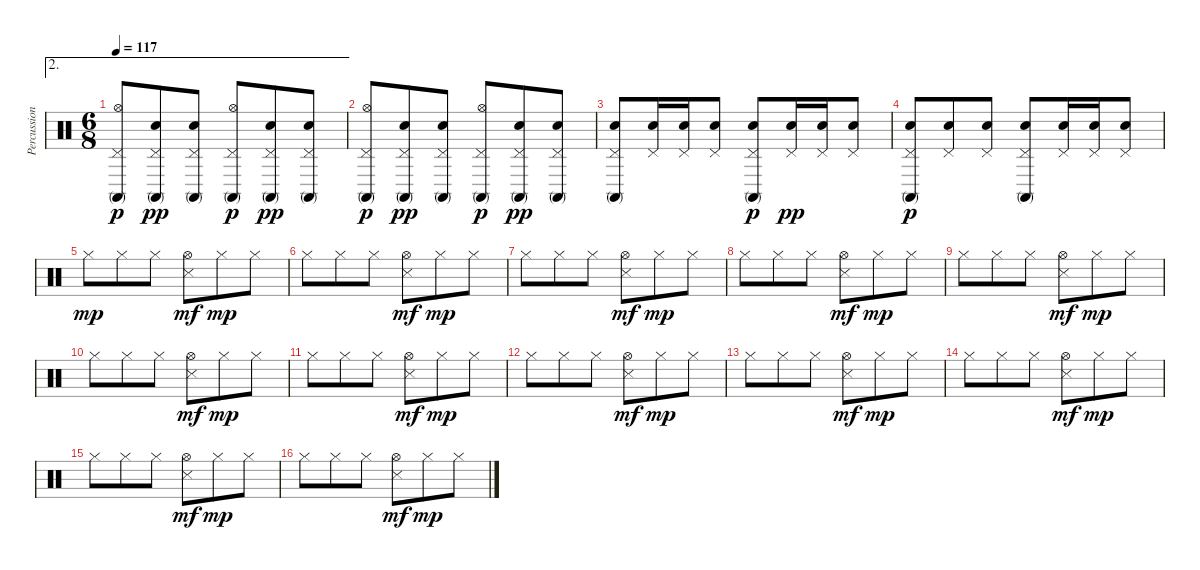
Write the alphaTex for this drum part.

\track ("Percussions" "Percussion") {instrument percussion}
\staff {score}
\articulation defaults
\ae 2
\ts (6 8)
\tempo 117
\clef neutral
\ks c
("Pedal Hi-Hat (hit)" "Hi-Hat (open)" "Conga high (mute)").8{dy p} ("Pedal Hi-Hat (hit)" "Snare (hit) 2" "Conga high (mute)").8{dy pp} ("Pedal Hi-Hat (hit)" "Snare (hit) 2" "Conga high (mute)").8 ("Pedal Hi-Hat (hit)" "Hi-Hat (open)" "Conga high (mute)").8{dy p} ("Pedal Hi-Hat (hit)" "Snare (hit) 2" "Conga high (mute)").8{dy pp} ("Pedal Hi-Hat (hit)" "Snare (hit) 2" "Conga high (mute)").8 |
("Pedal Hi-Hat (hit)" "Hi-Hat (open)" "Conga high (mute)").8{dy p} ("Pedal Hi-Hat (hit)" "Snare (hit) 2" "Conga high (mute)").8{dy pp} ("Pedal Hi-Hat (hit)" "Snare (hit) 2" "Conga high (mute)").8 ("Pedal Hi-Hat (hit)" "Hi-Hat (open)" "Conga high (mute)").8{dy p} ("Pedal Hi-Hat (hit)" "Snare (hit) 2" "Conga high (mute)").8{dy pp} ("Pedal Hi-Hat (hit)" "Snare (hit) 2" "Conga high (mute)").8 |
("Pedal Hi-Hat (hit)" "Snare (hit) 2" "Conga high (mute)").8 ("Pedal Hi-Hat (hit)" "Snare (hit) 2").16 ("Pedal Hi-Hat (hit)" "Snare (hit) 2").16 ("Pedal Hi-Hat (hit)" "Snare (hit) 2").8 ("Pedal Hi-Hat (hit)" "Snare (hit) 2" "Conga high (mute)").8{dy p} ("Pedal Hi-Hat (hit)" "Snare (hit) 2").16{dy pp} ("Pedal Hi-Hat (hit)" "Snare (hit) 2").16 ("Pedal Hi-Hat (hit)" "Snare (hit) 2").8 |
("Pedal Hi-Hat (hit)" "Snare (hit) 2" "Conga high (mute)").8{dy p} ("Pedal Hi-Hat (hit)" "Snare (hit) 2").8 ("Pedal Hi-Hat (hit)" "Snare (hit) 2").8 ("Pedal Hi-Hat (hit)" "Snare (hit) 2" "Conga high (mute)").8 ("Pedal Hi-Hat (hit)" "Snare (hit) 2").16 ("Pedal Hi-Hat (hit)" "Snare (hit) 2").16 ("Pedal Hi-Hat (hit)" "Snare (hit) 2").8 |
"Hi-Hat (closed)".8{dy mp} "Hi-Hat (closed)".8 "Hi-Hat (closed)".8 ("Hi-Hat (open)" "Snare (side stick) 3").8{dy mf} "Hi-Hat (closed)".8{dy mp} "Hi-Hat (closed)".8 |
"Hi-Hat (closed)".8 "Hi-Hat (closed)".8 "Hi-Hat (closed)".8 ("Hi-Hat (open)" "Snare (side stick) 3").8{dy mf} "Hi-Hat (closed)".8{dy mp} "Hi-Hat (closed)".8 |
"Hi-Hat (closed)".8 "Hi-Hat (closed)".8 "Hi-Hat (closed)".8 ("Hi-Hat (open)" "Snare (side stick) 3").8{dy mf} "Hi-Hat (closed)".8{dy mp} "Hi-Hat (closed)".8 |
"Hi-Hat (closed)".8 "Hi-Hat (closed)".8 "Hi-Hat (closed)".8 ("Hi-Hat (open)" "Snare (side stick) 3").8{dy mf} "Hi-Hat (closed)".8{dy mp} "Hi-Hat (closed)".8 |
"Hi-Hat (closed)".8 "Hi-Hat (closed)".8 "Hi-Hat (closed)".8 ("Hi-Hat (open)" "Snare (side stick) 3").8{dy mf} "Hi-Hat (closed)".8{dy mp} "Hi-Hat (closed)".8 |
"Hi-Hat (closed)".8 "Hi-Hat (closed)".8 "Hi-Hat (closed)".8 ("Hi-Hat (open)" "Snare (side stick) 3").8{dy mf} "Hi-Hat (closed)".8{dy mp} "Hi-Hat (closed)".8 |
"Hi-Hat (closed)".8 "Hi-Hat (closed)".8 "Hi-Hat (closed)".8 ("Hi-Hat (open)" "Snare (side stick) 3").8{dy mf} "Hi-Hat (closed)".8{dy mp} "Hi-Hat (closed)".8 |
"Hi-Hat (closed)".8 "Hi-Hat (closed)".8 "Hi-Hat (closed)".8 ("Hi-Hat (open)" "Snare (side stick) 3").8{dy mf} "Hi-Hat (closed)".8{dy mp} "Hi-Hat (closed)".8 |
"Hi-Hat (closed)".8 "Hi-Hat (closed)".8 "Hi-Hat (closed)".8 ("Hi-Hat (open)" "Snare (side stick) 3").8{dy mf} "Hi-Hat (closed)".8{dy mp} "Hi-Hat (closed)".8 |
"Hi-Hat (closed)".8 "Hi-Hat (closed)".8 "Hi-Hat (closed)".8 ("Hi-Hat (open)" "Snare (side stick) 3").8{dy mf} "Hi-Hat (closed)".8{dy mp} "Hi-Hat (closed)".8 |
"Hi-Hat (closed)".8 "Hi-Hat (closed)".8 "Hi-Hat (closed)".8 ("Hi-Hat (open)" "Snare (side stick) 3").8{dy mf} "Hi-Hat (closed)".8{dy mp} "Hi-Hat (closed)".8 |
"Hi-Hat (closed)".8 "Hi-Hat (closed)".8 "Hi-Hat (closed)".8 ("Hi-Hat (open)" "Snare (side stick) 3").8{dy mf} "Hi-Hat (closed)".8{dy mp} "Hi-Hat (closed)".8
